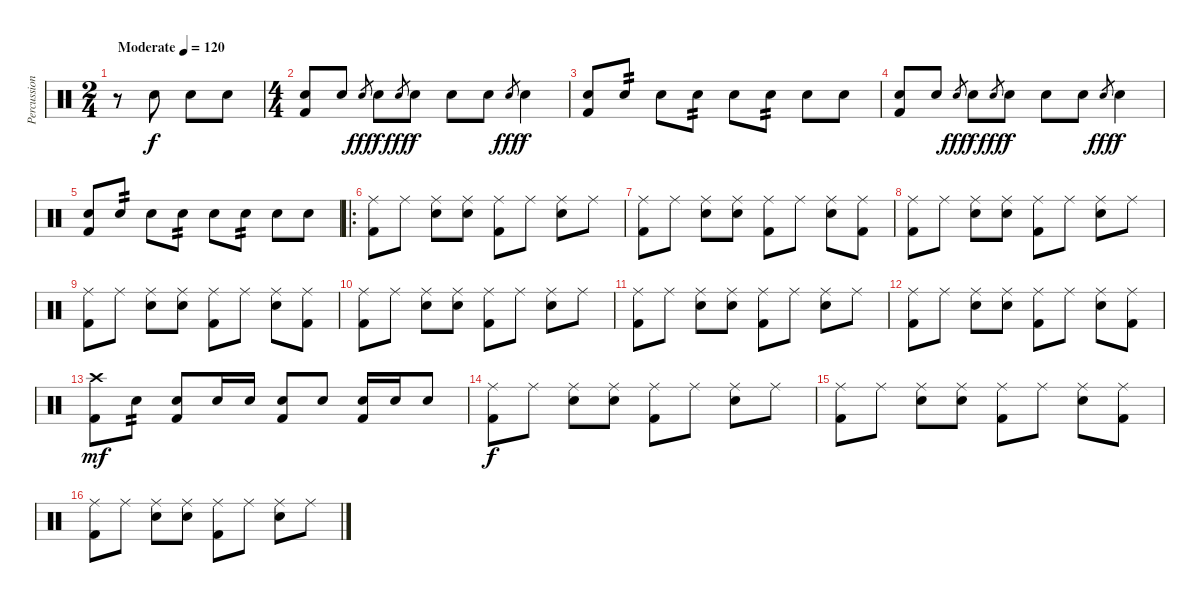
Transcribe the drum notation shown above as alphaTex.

\track ("Percussion" "Percussion") {instrument percussion}
\staff {score}
\articulation defaults
\ts (2 4)
\tempo (120 "Moderate")
\clef neutral
\ks c
r.8{dy f} "Snare (hit) 2".8 "Snare (hit) 2".8 "Snare (hit) 2".8 |
\ts (4 4)
("Snare (hit) 2" "Kick (hit) 2").8 "Snare (hit) 2".8 "Snare (hit) 2".8{gr dy fff} "Snare (hit) 2".8{dy f} "Snare (hit) 2".8{gr dy fff} "Snare (hit) 2".8{dy f} "Snare (hit) 2".8 "Snare (hit) 2".8 "Snare (hit) 2".8{gr dy fff} "Snare (hit) 2".4{dy f} |
("Snare (hit) 2" "Kick (hit) 2").8 "Snare (hit) 2".8{tp 2} "Snare (hit) 2".8 "Snare (hit) 2".8{tp 2} "Snare (hit) 2".8 "Snare (hit) 2".8{tp 2} "Snare (hit) 2".8 "Snare (hit) 2".8 |
("Snare (hit) 2" "Kick (hit) 2").8 "Snare (hit) 2".8 "Snare (hit) 2".8{gr dy fff} "Snare (hit) 2".8{dy f} "Snare (hit) 2".8{gr dy fff} "Snare (hit) 2".8{dy f} "Snare (hit) 2".8 "Snare (hit) 2".8 "Snare (hit) 2".8{gr dy fff} "Snare (hit) 2".4{dy f} |
("Snare (hit) 2" "Kick (hit) 2").8 "Snare (hit) 2".8{tp 2} "Snare (hit) 2".8 "Snare (hit) 2".8{tp 2} "Snare (hit) 2".8 "Snare (hit) 2".8{tp 2} "Snare (hit) 2".8 "Snare (hit) 2".8 |
\ro
("Ride (middle)" "Kick (hit) 2").8 "Ride (middle)".8 ("Ride (middle)" "Snare (hit) 2").8 ("Ride (middle)" "Snare (hit) 2").8 ("Ride (middle)" "Kick (hit) 2").8 "Ride (middle)".8 ("Ride (middle)" "Snare (hit) 2").8 "Ride (middle)".8 |
("Ride (middle)" "Kick (hit) 2").8 "Ride (middle)".8 ("Ride (middle)" "Snare (hit) 2").8 ("Ride (middle)" "Snare (hit) 2").8 ("Ride (middle)" "Kick (hit) 2").8 "Ride (middle)".8 ("Ride (middle)" "Snare (hit) 2").8 ("Ride (middle)" "Kick (hit) 2").8 |
("Ride (middle)" "Kick (hit) 2").8 "Ride (middle)".8 ("Ride (middle)" "Snare (hit) 2").8 ("Ride (middle)" "Snare (hit) 2").8 ("Ride (middle)" "Kick (hit) 2").8 "Ride (middle)".8 ("Ride (middle)" "Snare (hit) 2").8 "Ride (middle)".8 |
("Ride (middle)" "Kick (hit) 2").8 "Ride (middle)".8 ("Ride (middle)" "Snare (hit) 2").8 ("Ride (middle)" "Snare (hit) 2").8 ("Ride (middle)" "Kick (hit) 2").8 "Ride (middle)".8 ("Ride (middle)" "Snare (hit) 2").8 ("Ride (middle)" "Kick (hit) 2").8 |
("Ride (middle)" "Kick (hit) 2").8 "Ride (middle)".8 ("Ride (middle)" "Snare (hit) 2").8 ("Ride (middle)" "Snare (hit) 2").8 ("Ride (middle)" "Kick (hit) 2").8 "Ride (middle)".8 ("Ride (middle)" "Snare (hit) 2").8 "Ride (middle)".8 |
("Ride (middle)" "Kick (hit) 2").8 "Ride (middle)".8 ("Ride (middle)" "Snare (hit) 2").8 ("Ride (middle)" "Snare (hit) 2").8 ("Ride (middle)" "Kick (hit) 2").8 "Ride (middle)".8 ("Ride (middle)" "Snare (hit) 2").8 "Ride (middle)".8 |
("Ride (middle)" "Kick (hit) 2").8 "Ride (middle)".8 ("Ride (middle)" "Snare (hit) 2").8 ("Ride (middle)" "Snare (hit) 2").8 ("Ride (middle)" "Kick (hit) 2").8 "Ride (middle)".8 ("Ride (middle)" "Snare (hit) 2").8 ("Ride (middle)" "Kick (hit) 2").8 |
("Crash high (hit)" "Kick (hit) 2").8{dy mf} "Snare (hit) 2".8{tp 2} ("Snare (hit) 2" "Kick (hit) 2").8 "Snare (hit) 2".16 "Snare (hit) 2".16 ("Snare (hit) 2" "Kick (hit) 2").8 "Snare (hit) 2".8 ("Snare (hit) 2" "Kick (hit) 2").16 "Snare (hit) 2".16 "Snare (hit) 2".8 |
("Ride (middle)" "Kick (hit) 2").8{dy f} "Ride (middle)".8 ("Ride (middle)" "Snare (hit) 2").8 ("Ride (middle)" "Snare (hit) 2").8 ("Ride (middle)" "Kick (hit) 2").8 "Ride (middle)".8 ("Ride (middle)" "Snare (hit) 2").8 "Ride (middle)".8 |
("Ride (middle)" "Kick (hit) 2").8 "Ride (middle)".8 ("Ride (middle)" "Snare (hit) 2").8 ("Ride (middle)" "Snare (hit) 2").8 ("Ride (middle)" "Kick (hit) 2").8 "Ride (middle)".8 ("Ride (middle)" "Snare (hit) 2").8 ("Ride (middle)" "Kick (hit) 2").8 |
("Ride (middle)" "Kick (hit) 2").8 "Ride (middle)".8 ("Ride (middle)" "Snare (hit) 2").8 ("Ride (middle)" "Snare (hit) 2").8 ("Ride (middle)" "Kick (hit) 2").8 "Ride (middle)".8 ("Ride (middle)" "Snare (hit) 2").8 "Ride (middle)".8
